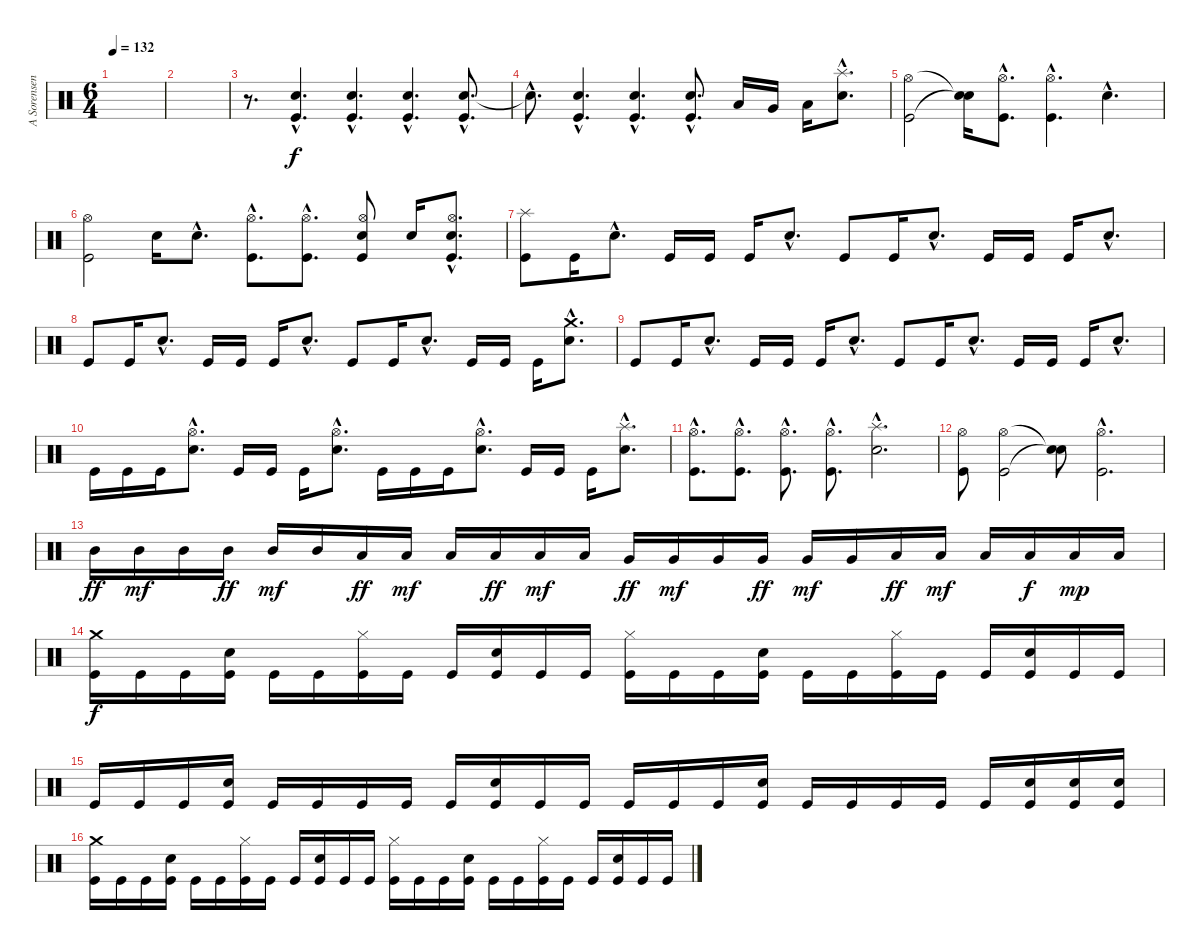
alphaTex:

\track ("A Sorensen" "A Sorensen") {instrument percussion}
\staff {score}
\articulation defaults
\ts (6 4)
\tempo 132
\clef neutral
\ks c
|
|
r.8{d} ("Snare (hit) 2"{hac} "Kick (hit)"{hac}).4{d} ("Snare (hit) 2"{hac} "Kick (hit)"{hac}).4{d} ("Snare (hit) 2"{hac} "Kick (hit)"{hac}).4{d} ("Snare (hit) 2"{hac} "Kick (hit)"{hac}).8{d} |
"Snare (hit)"{hac t}.8{d} ("Snare (hit) 2"{hac} "Kick (hit)"{hac}).4{d} ("Snare (hit) 2"{hac} "Kick (hit)"{hac}).4{d} ("Snare (hit) 2"{hac} "Kick (hit)"{hac}).8{d} "Low Tom (hit)".16 "Very Low Tom (hit)".16 "Low Floor Tom (hit)".16 ("Splash (hit)"{hac} "Snare (hit) 2"{hac}).8{d} |
("Hi-Hat (open)" "Kick (hit)").2 ("Snare (hit)"{t} "Snare (hit)"{t}).16 ("Hi-Hat (open)"{hac} "Kick (hit)"{hac}).8{d} ("Hi-Hat (open)"{hac} "Kick (hit)"{hac}).4{d} "Electric Snare (hit)"{hac}.4{d} |
("Hi-Hat (open)" "Kick (hit)").2 "Snare (hit) 2".16 "Electric Snare (hit)"{hac}.8{d} ("Hi-Hat (open)"{hac} "Kick (hit)"{hac}).8{d} ("Hi-Hat (open)"{hac} "Kick (hit)"{hac}).8{d} ("Hi-Hat (open)" "Electric Snare (hit)" "Kick (hit)").8 "Snare (hit) 2".16 ("Hi-Hat (open)"{hac} "Electric Snare (hit)"{hac} "Kick (hit)"{hac}).8{d} |
("Splash (hit)" "Kick (hit)").8 "Kick (hit)".16 "Electric Snare (hit)"{hac}.8{d} "Kick (hit)".16 "Kick (hit)".16 "Kick (hit)".16 "Electric Snare (hit)"{hac}.8{d} "Kick (hit)".8 "Kick (hit)".16 "Electric Snare (hit)"{hac}.8{d} "Kick (hit)".16 "Kick (hit)".16 "Kick (hit)".16 "Electric Snare (hit)"{hac}.8{d} |
"Kick (hit)".8 "Kick (hit)".16 "Electric Snare (hit)"{hac}.8{d} "Kick (hit)".16 "Kick (hit)".16 "Kick (hit)".16 "Electric Snare (hit)"{hac}.8{d} "Kick (hit)".8 "Kick (hit)".16 "Electric Snare (hit)"{hac}.8{d} "Kick (hit)".16 "Kick (hit)".16 "Kick (hit)".16 ("Crash medium (hit)"{hac} "Electric Snare (hit)"{hac}).8{d} |
"Kick (hit)".8 "Kick (hit)".16 "Electric Snare (hit)"{hac}.8{d} "Kick (hit)".16 "Kick (hit)".16 "Kick (hit)".16 "Electric Snare (hit)"{hac}.8{d} "Kick (hit)".8 "Kick (hit)".16 "Electric Snare (hit)"{hac}.8{d} "Kick (hit)".16 "Kick (hit)".16 "Kick (hit)".16 "Electric Snare (hit)"{hac}.8{d} |
"Kick (hit)".16 "Kick (hit)".16 "Kick (hit)".16 ("Hi-Hat (open)"{hac} "Electric Snare (hit)"{hac}).8{d} "Kick (hit)".16 "Kick (hit)".16 "Kick (hit)".16 ("Hi-Hat (open)"{hac} "Electric Snare (hit)"{hac}).8{d} "Kick (hit)".16 "Kick (hit)".16 "Kick (hit)".16 ("Hi-Hat (open)"{hac} "Electric Snare (hit)"{hac}).8{d} "Kick (hit)".16 "Kick (hit)".16 "Kick (hit)".16 ("Splash (hit)"{hac} "Electric Snare (hit)"{hac}).8{d} |
("Hi-Hat (open)"{hac} "Kick (hit)"{hac}).8{d} ("Hi-Hat (open)"{hac} "Kick (hit)"{hac}).8{d} ("Hi-Hat (open)"{hac} "Kick (hit)"{hac}).8{d} ("Hi-Hat (open)"{hac} "Kick (hit)"{hac}).8{d} ("Splash (hit)"{hac} "Snare (hit) 2"{hac}).2{d} |
("Hi-Hat (open)" "Kick (hit)").8 ("Hi-Hat (open)" "Kick (hit)").2 ("Snare (hit)"{t} "Snare (hit)"{t}).8 ("Hi-Hat (open)"{hac} "Kick (hit)"{hac}).2{d} |
"Mid Tom (hit)".16{dy ff} "Mid Tom (hit)".16{dy mf} "Mid Tom (hit)".16 "Mid Tom (hit)".16{dy ff} "Mid Tom (hit)".16{dy mf} "Mid Tom (hit)".16 "Low Tom (hit)".16{dy ff} "Low Tom (hit)".16{dy mf} "Low Tom (hit)".16 "Low Tom (hit)".16{dy ff} "Low Tom (hit)".16{dy mf} "Low Tom (hit)".16 "Very Low Tom (hit)".16{dy ff} "Very Low Tom (hit)".16{dy mf} "Very Low Tom (hit)".16 "Very Low Tom (hit)".16{dy ff} "Very Low Tom (hit)".16{dy mf} "Very Low Tom (hit)".16 "Low Floor Tom (hit)".16{dy ff} "Low Floor Tom (hit)".16{dy mf} "Low Floor Tom (hit)".16 "Low Floor Tom (hit)".16{dy f} "Low Floor Tom (hit)".16{dy mp} "Low Floor Tom (hit)".16 |
("Crash medium (hit)" "Kick (hit)").16{dy f} "Kick (hit)".16 "Kick (hit)".16 ("Electric Snare (hit)" "Kick (hit)").16 "Kick (hit)".16 "Kick (hit)".16 ("Hi-Hat (closed)" "Kick (hit)").16 "Kick (hit)".16 "Kick (hit)".16 ("Electric Snare (hit)" "Kick (hit)").16 "Kick (hit)".16 "Kick (hit)".16 ("Hi-Hat (closed)" "Kick (hit)").16 "Kick (hit)".16 "Kick (hit)".16 ("Electric Snare (hit)" "Kick (hit)").16 "Kick (hit)".16 "Kick (hit)".16 ("Hi-Hat (closed)" "Kick (hit)").16 "Kick (hit)".16 "Kick (hit)".16 ("Electric Snare (hit)" "Kick (hit)").16 "Kick (hit)".16 "Kick (hit)".16 |
"Kick (hit)".16 "Kick (hit)".16 "Kick (hit)".16 ("Electric Snare (hit)" "Kick (hit)").16 "Kick (hit)".16 "Kick (hit)".16 "Kick (hit)".16 "Kick (hit)".16 "Kick (hit)".16 ("Electric Snare (hit)" "Kick (hit)").16 "Kick (hit)".16 "Kick (hit)".16 "Kick (hit)".16 "Kick (hit)".16 "Kick (hit)".16 ("Electric Snare (hit)" "Kick (hit)").16 "Kick (hit)".16 "Kick (hit)".16 "Kick (hit)".16 "Kick (hit)".16 "Kick (hit)".16 ("Electric Snare (hit)" "Kick (hit)").16 ("Electric Snare (hit)" "Kick (hit)").16 ("Electric Snare (hit)" "Kick (hit)").16 |
("Crash medium (hit)" "Kick (hit)").16 "Kick (hit)".16 "Kick (hit)".16 ("Electric Snare (hit)" "Kick (hit)").16 "Kick (hit)".16 "Kick (hit)".16 ("Hi-Hat (closed)" "Kick (hit)").16 "Kick (hit)".16 "Kick (hit)".16 ("Electric Snare (hit)" "Kick (hit)").16 "Kick (hit)".16 "Kick (hit)".16 ("Hi-Hat (closed)" "Kick (hit)").16 "Kick (hit)".16 "Kick (hit)".16 ("Electric Snare (hit)" "Kick (hit)").16 "Kick (hit)".16 "Kick (hit)".16 ("Hi-Hat (closed)" "Kick (hit)").16 "Kick (hit)".16 "Kick (hit)".16 ("Electric Snare (hit)" "Kick (hit)").16 "Kick (hit)".16 "Kick (hit)".16
